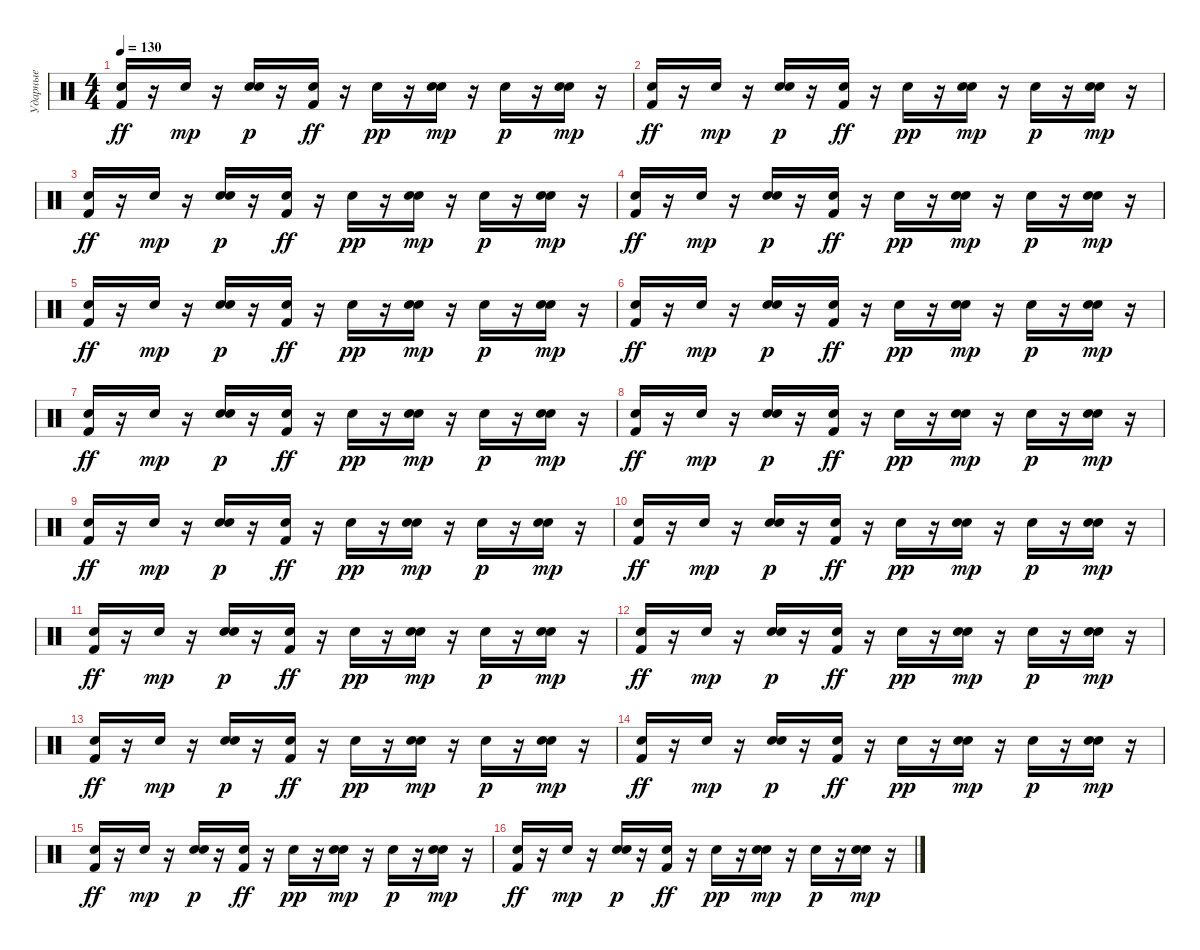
\track ("Ударные" "Ударные") {instrument percussion}
\staff {score}
\articulation defaults
\ts (4 4)
\tempo 130
\clef neutral
\ks c
("Hand Clap (hit)" "Kick (hit) 2").16{dy ff} r.16 "Hand Clap (hit)".16{dy mp} r.16 ("Hand Clap (hit)" "Electric Snare (hit)").16{dy p} r.16 ("Hand Clap (hit)" "Kick (hit) 2").16{dy ff} r.16 "Hand Clap (hit)".16{dy pp} r.16 ("Hand Clap (hit)" "Electric Snare (hit)").16{dy mp} r.16 "Hand Clap (hit)".16{dy p} r.16 ("Hand Clap (hit)" "Electric Snare (hit)").16{dy mp} r.16 |
("Hand Clap (hit)" "Kick (hit) 2").16{dy ff} r.16 "Hand Clap (hit)".16{dy mp} r.16 ("Hand Clap (hit)" "Electric Snare (hit)").16{dy p} r.16 ("Hand Clap (hit)" "Kick (hit) 2").16{dy ff} r.16 "Hand Clap (hit)".16{dy pp} r.16 ("Hand Clap (hit)" "Electric Snare (hit)").16{dy mp} r.16 "Hand Clap (hit)".16{dy p} r.16 ("Hand Clap (hit)" "Electric Snare (hit)").16{dy mp} r.16 |
("Hand Clap (hit)" "Kick (hit) 2").16{dy ff} r.16 "Hand Clap (hit)".16{dy mp} r.16 ("Hand Clap (hit)" "Electric Snare (hit)").16{dy p} r.16 ("Hand Clap (hit)" "Kick (hit) 2").16{dy ff} r.16 "Hand Clap (hit)".16{dy pp} r.16 ("Hand Clap (hit)" "Electric Snare (hit)").16{dy mp} r.16 "Hand Clap (hit)".16{dy p} r.16 ("Hand Clap (hit)" "Electric Snare (hit)").16{dy mp} r.16 |
("Hand Clap (hit)" "Kick (hit) 2").16{dy ff} r.16 "Hand Clap (hit)".16{dy mp} r.16 ("Hand Clap (hit)" "Electric Snare (hit)").16{dy p} r.16 ("Hand Clap (hit)" "Kick (hit) 2").16{dy ff} r.16 "Hand Clap (hit)".16{dy pp} r.16 ("Hand Clap (hit)" "Electric Snare (hit)").16{dy mp} r.16 "Hand Clap (hit)".16{dy p} r.16 ("Hand Clap (hit)" "Electric Snare (hit)").16{dy mp} r.16 |
("Hand Clap (hit)" "Kick (hit) 2").16{dy ff} r.16 "Hand Clap (hit)".16{dy mp} r.16 ("Hand Clap (hit)" "Electric Snare (hit)").16{dy p} r.16 ("Hand Clap (hit)" "Kick (hit) 2").16{dy ff} r.16 "Hand Clap (hit)".16{dy pp} r.16 ("Hand Clap (hit)" "Electric Snare (hit)").16{dy mp} r.16 "Hand Clap (hit)".16{dy p} r.16 ("Hand Clap (hit)" "Electric Snare (hit)").16{dy mp} r.16 |
("Hand Clap (hit)" "Kick (hit) 2").16{dy ff} r.16 "Hand Clap (hit)".16{dy mp} r.16 ("Hand Clap (hit)" "Electric Snare (hit)").16{dy p} r.16 ("Hand Clap (hit)" "Kick (hit) 2").16{dy ff} r.16 "Hand Clap (hit)".16{dy pp} r.16 ("Hand Clap (hit)" "Electric Snare (hit)").16{dy mp} r.16 "Hand Clap (hit)".16{dy p} r.16 ("Hand Clap (hit)" "Electric Snare (hit)").16{dy mp} r.16 |
("Hand Clap (hit)" "Kick (hit) 2").16{dy ff} r.16 "Hand Clap (hit)".16{dy mp} r.16 ("Hand Clap (hit)" "Electric Snare (hit)").16{dy p} r.16 ("Hand Clap (hit)" "Kick (hit) 2").16{dy ff} r.16 "Hand Clap (hit)".16{dy pp} r.16 ("Hand Clap (hit)" "Electric Snare (hit)").16{dy mp} r.16 "Hand Clap (hit)".16{dy p} r.16 ("Hand Clap (hit)" "Electric Snare (hit)").16{dy mp} r.16 |
("Hand Clap (hit)" "Kick (hit) 2").16{dy ff} r.16 "Hand Clap (hit)".16{dy mp} r.16 ("Hand Clap (hit)" "Electric Snare (hit)").16{dy p} r.16 ("Hand Clap (hit)" "Kick (hit) 2").16{dy ff} r.16 "Hand Clap (hit)".16{dy pp} r.16 ("Hand Clap (hit)" "Electric Snare (hit)").16{dy mp} r.16 "Hand Clap (hit)".16{dy p} r.16 ("Hand Clap (hit)" "Electric Snare (hit)").16{dy mp} r.16 |
("Hand Clap (hit)" "Kick (hit) 2").16{dy ff} r.16 "Hand Clap (hit)".16{dy mp} r.16 ("Hand Clap (hit)" "Electric Snare (hit)").16{dy p} r.16 ("Hand Clap (hit)" "Kick (hit) 2").16{dy ff} r.16 "Hand Clap (hit)".16{dy pp} r.16 ("Hand Clap (hit)" "Electric Snare (hit)").16{dy mp} r.16 "Hand Clap (hit)".16{dy p} r.16 ("Hand Clap (hit)" "Electric Snare (hit)").16{dy mp} r.16 |
("Hand Clap (hit)" "Kick (hit) 2").16{dy ff} r.16 "Hand Clap (hit)".16{dy mp} r.16 ("Hand Clap (hit)" "Electric Snare (hit)").16{dy p} r.16 ("Hand Clap (hit)" "Kick (hit) 2").16{dy ff} r.16 "Hand Clap (hit)".16{dy pp} r.16 ("Hand Clap (hit)" "Electric Snare (hit)").16{dy mp} r.16 "Hand Clap (hit)".16{dy p} r.16 ("Hand Clap (hit)" "Electric Snare (hit)").16{dy mp} r.16 |
("Hand Clap (hit)" "Kick (hit) 2").16{dy ff} r.16 "Hand Clap (hit)".16{dy mp} r.16 ("Hand Clap (hit)" "Electric Snare (hit)").16{dy p} r.16 ("Hand Clap (hit)" "Kick (hit) 2").16{dy ff} r.16 "Hand Clap (hit)".16{dy pp} r.16 ("Hand Clap (hit)" "Electric Snare (hit)").16{dy mp} r.16 "Hand Clap (hit)".16{dy p} r.16 ("Hand Clap (hit)" "Electric Snare (hit)").16{dy mp} r.16 |
("Hand Clap (hit)" "Kick (hit) 2").16{dy ff} r.16 "Hand Clap (hit)".16{dy mp} r.16 ("Hand Clap (hit)" "Electric Snare (hit)").16{dy p} r.16 ("Hand Clap (hit)" "Kick (hit) 2").16{dy ff} r.16 "Hand Clap (hit)".16{dy pp} r.16 ("Hand Clap (hit)" "Electric Snare (hit)").16{dy mp} r.16 "Hand Clap (hit)".16{dy p} r.16 ("Hand Clap (hit)" "Electric Snare (hit)").16{dy mp} r.16 |
("Hand Clap (hit)" "Kick (hit) 2").16{dy ff} r.16 "Hand Clap (hit)".16{dy mp} r.16 ("Hand Clap (hit)" "Electric Snare (hit)").16{dy p} r.16 ("Hand Clap (hit)" "Kick (hit) 2").16{dy ff} r.16 "Hand Clap (hit)".16{dy pp} r.16 ("Hand Clap (hit)" "Electric Snare (hit)").16{dy mp} r.16 "Hand Clap (hit)".16{dy p} r.16 ("Hand Clap (hit)" "Electric Snare (hit)").16{dy mp} r.16 |
("Hand Clap (hit)" "Kick (hit) 2").16{dy ff} r.16 "Hand Clap (hit)".16{dy mp} r.16 ("Hand Clap (hit)" "Electric Snare (hit)").16{dy p} r.16 ("Hand Clap (hit)" "Kick (hit) 2").16{dy ff} r.16 "Hand Clap (hit)".16{dy pp} r.16 ("Hand Clap (hit)" "Electric Snare (hit)").16{dy mp} r.16 "Hand Clap (hit)".16{dy p} r.16 ("Hand Clap (hit)" "Electric Snare (hit)").16{dy mp} r.16 |
("Hand Clap (hit)" "Kick (hit) 2").16{dy ff} r.16 "Hand Clap (hit)".16{dy mp} r.16 ("Hand Clap (hit)" "Electric Snare (hit)").16{dy p} r.16 ("Hand Clap (hit)" "Kick (hit) 2").16{dy ff} r.16 "Hand Clap (hit)".16{dy pp} r.16 ("Hand Clap (hit)" "Electric Snare (hit)").16{dy mp} r.16 "Hand Clap (hit)".16{dy p} r.16 ("Hand Clap (hit)" "Electric Snare (hit)").16{dy mp} r.16 |
("Hand Clap (hit)" "Kick (hit) 2").16{dy ff} r.16 "Hand Clap (hit)".16{dy mp} r.16 ("Hand Clap (hit)" "Electric Snare (hit)").16{dy p} r.16 ("Hand Clap (hit)" "Kick (hit) 2").16{dy ff} r.16 "Hand Clap (hit)".16{dy pp} r.16 ("Hand Clap (hit)" "Electric Snare (hit)").16{dy mp} r.16 "Hand Clap (hit)".16{dy p} r.16 ("Hand Clap (hit)" "Electric Snare (hit)").16{dy mp} r.16
